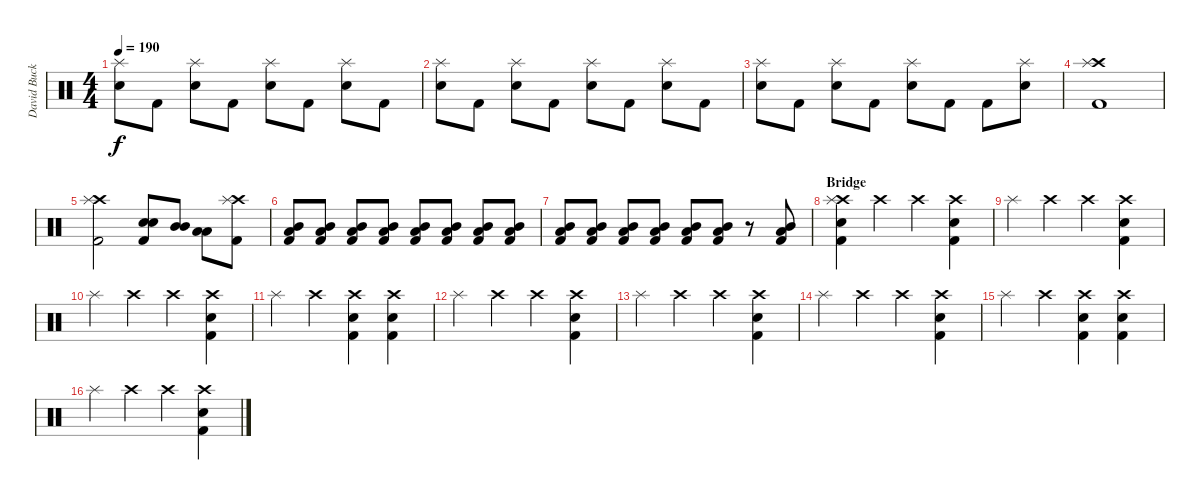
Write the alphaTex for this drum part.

\track ("David Buckner" "David Buck") {instrument percussion}
\staff {score}
\articulation defaults
\ts (4 4)
\tempo 190
\clef neutral
\ks c
("Splash (hit)" "Snare (hit) 2").8{dy f} "Kick (hit) 2".8 ("Splash (hit)" "Snare (hit) 2").8 "Kick (hit) 2".8 ("Splash (hit)" "Snare (hit) 2").8 "Kick (hit) 2".8 ("Splash (hit)" "Snare (hit) 2").8 "Kick (hit) 2".8 |
("Splash (hit)" "Snare (hit) 2").8 "Kick (hit) 2".8 ("Splash (hit)" "Snare (hit) 2").8 "Kick (hit) 2".8 ("Splash (hit)" "Snare (hit) 2").8 "Kick (hit) 2".8 ("Splash (hit)" "Snare (hit) 2").8 "Kick (hit) 2".8 |
("Splash (hit)" "Snare (hit) 2").8 "Kick (hit) 2".8 ("Splash (hit)" "Snare (hit) 2").8 "Kick (hit) 2".8 ("Splash (hit)" "Snare (hit) 2").8 "Kick (hit) 2".8 "Kick (hit) 2".8 ("Splash (hit)" "Snare (hit) 2").8 |
("Crash high (hit)" "Splash (hit)" "Kick (hit) 2").1 |
("Crash high (hit)" "Splash (hit)" "Kick (hit) 2").2 ("Snare (hit) 2" "Snare (hit) 2" "Kick (hit) 2").8 ("Mid Tom (hit)" "Mid Tom (hit)").8 ("Low Tom (hit)" "Low Tom (hit)").8 ("Crash high (hit)" "Splash (hit)" "Kick (hit) 2").8 |
("Mid Tom (hit)" "Low Tom (hit)" "Kick (hit) 2").8 ("Mid Tom (hit)" "Low Tom (hit)" "Kick (hit) 2").8 ("Mid Tom (hit)" "Low Tom (hit)" "Kick (hit) 2").8 ("Mid Tom (hit)" "Low Tom (hit)" "Kick (hit) 2").8 ("Mid Tom (hit)" "Low Tom (hit)" "Kick (hit) 2").8 ("Mid Tom (hit)" "Low Tom (hit)" "Kick (hit) 2").8 ("Mid Tom (hit)" "Low Tom (hit)" "Kick (hit) 2").8 ("Mid Tom (hit)" "Low Tom (hit)" "Kick (hit) 2").8 |
("Mid Tom (hit)" "Low Tom (hit)" "Kick (hit) 2").8 ("Mid Tom (hit)" "Low Tom (hit)" "Kick (hit) 2").8 ("Mid Tom (hit)" "Low Tom (hit)" "Kick (hit) 2").8 ("Mid Tom (hit)" "Low Tom (hit)" "Kick (hit) 2").8 ("Mid Tom (hit)" "Low Tom (hit)" "Kick (hit) 2").8 ("Mid Tom (hit)" "Low Tom (hit)" "Kick (hit) 2").8 r.8 ("Mid Tom (hit)" "Low Tom (hit)" "Kick (hit) 2").8 |
\section ("" "Bridge")
("Crash high (hit)" "Splash (hit)" "Snare (hit) 2" "Kick (hit) 2").4 "Crash high (hit)".4 "Crash high (hit)".4 ("Crash high (hit)" "Snare (hit) 2" "Kick (hit) 2").4 |
"Splash (hit)".4 "Crash high (hit)".4 "Crash high (hit)".4 ("Crash high (hit)" "Snare (hit) 2" "Kick (hit) 2").4 |
"Splash (hit)".4 "Crash high (hit)".4 "Crash high (hit)".4 ("Crash high (hit)" "Snare (hit) 2" "Kick (hit) 2").4 |
"Splash (hit)".4 "Crash high (hit)".4 ("Crash high (hit)" "Snare (hit) 2" "Kick (hit) 2").4 ("Crash high (hit)" "Snare (hit) 2" "Kick (hit) 2").4 |
"Splash (hit)".4 "Crash high (hit)".4 "Crash high (hit)".4 ("Crash high (hit)" "Snare (hit) 2" "Kick (hit) 2").4 |
"Splash (hit)".4 "Crash high (hit)".4 "Crash high (hit)".4 ("Crash high (hit)" "Snare (hit) 2" "Kick (hit) 2").4 |
"Splash (hit)".4 "Crash high (hit)".4 "Crash high (hit)".4 ("Crash high (hit)" "Snare (hit) 2" "Kick (hit) 2").4 |
"Splash (hit)".4 "Crash high (hit)".4 ("Crash high (hit)" "Snare (hit) 2" "Kick (hit) 2").4 ("Crash high (hit)" "Snare (hit) 2" "Kick (hit) 2").4 |
"Splash (hit)".4 "Crash high (hit)".4 "Crash high (hit)".4 ("Crash high (hit)" "Snare (hit) 2" "Kick (hit) 2").4
